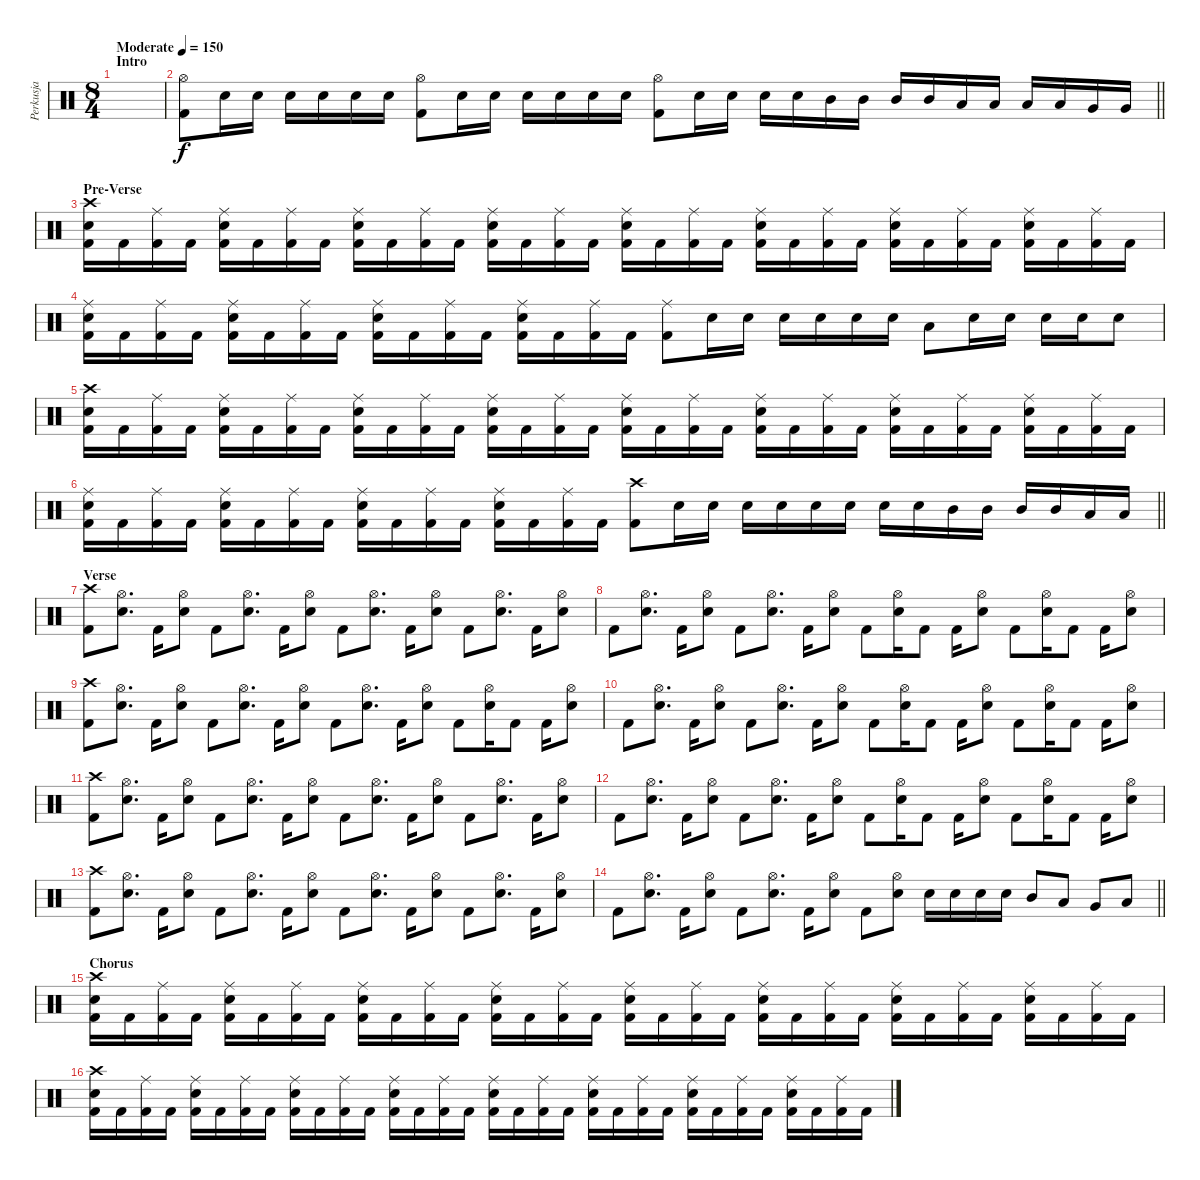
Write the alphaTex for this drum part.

\track ("Perkusja" "Perkusja") {instrument percussion}
\staff {score}
\articulation defaults
\ts (8 4)
\section ("" "Intro")
\tempo (150 "Moderate")
\clef neutral
\ks c
|
\barLineRight lightlight
("Hi-Hat (open)" "Kick (hit) 2").8 "Snare (hit) 2".16 "Snare (hit) 2".16 "Snare (hit) 2".16 "Snare (hit) 2".16 "Snare (hit) 2".16 "Snare (hit) 2".16 ("Hi-Hat (open)" "Kick (hit) 2").8 "Snare (hit) 2".16 "Snare (hit) 2".16 "Snare (hit) 2".16 "Snare (hit) 2".16 "Snare (hit) 2".16 "Snare (hit) 2".16 ("Hi-Hat (open)" "Kick (hit) 2").8 "Snare (hit) 2".16 "Snare (hit) 2".16 "Snare (hit) 2".16 "Snare (hit) 2".16 "Mid Tom (hit)".16 "Mid Tom (hit)".16 "Mid Tom (hit)".16 "Mid Tom (hit)".16 "Low Tom (hit)".16 "Low Tom (hit)".16 "Low Tom (hit)".16 "Low Tom (hit)".16 "Very Low Tom (hit)".16 "Very Low Tom (hit)".16 |
\section ("" "Pre-Verse")
("Crash high (hit)" "Snare (hit) 2" "Kick (hit) 2").16 "Kick (hit) 2".16 ("Ride (middle)" "Kick (hit) 2").16 "Kick (hit) 2".16 ("Ride (middle)" "Snare (hit) 2" "Kick (hit) 2").16 "Kick (hit) 2".16 ("Ride (middle)" "Kick (hit) 2").16 "Kick (hit) 2".16 ("Ride (middle)" "Snare (hit) 2" "Kick (hit) 2").16 "Kick (hit) 2".16 ("Ride (middle)" "Kick (hit) 2").16 "Kick (hit) 2".16 ("Ride (middle)" "Snare (hit) 2" "Kick (hit) 2").16 "Kick (hit) 2".16 ("Ride (middle)" "Kick (hit) 2").16 "Kick (hit) 2".16 ("Ride (middle)" "Snare (hit) 2" "Kick (hit) 2").16 "Kick (hit) 2".16 ("Ride (middle)" "Kick (hit) 2").16 "Kick (hit) 2".16 ("Ride (middle)" "Snare (hit) 2" "Kick (hit) 2").16 "Kick (hit) 2".16 ("Ride (middle)" "Kick (hit) 2").16 "Kick (hit) 2".16 ("Ride (middle)" "Snare (hit) 2" "Kick (hit) 2").16 "Kick (hit) 2".16 ("Ride (middle)" "Kick (hit) 2").16 "Kick (hit) 2".16 ("Ride (middle)" "Snare (hit) 2" "Kick (hit) 2").16 "Kick (hit) 2".16 ("Ride (middle)" "Kick (hit) 2").16 "Kick (hit) 2".16 |
("Ride (middle)" "Snare (hit) 2" "Kick (hit) 2").16 "Kick (hit) 2".16 ("Ride (middle)" "Kick (hit) 2").16 "Kick (hit) 2".16 ("Ride (middle)" "Snare (hit) 2" "Kick (hit) 2").16 "Kick (hit) 2".16 ("Ride (middle)" "Kick (hit) 2").16 "Kick (hit) 2".16 ("Ride (middle)" "Snare (hit) 2" "Kick (hit) 2").16 "Kick (hit) 2".16 ("Ride (middle)" "Kick (hit) 2").16 "Kick (hit) 2".16 ("Ride (middle)" "Snare (hit) 2" "Kick (hit) 2").16 "Kick (hit) 2".16 ("Ride (middle)" "Kick (hit) 2").16 "Kick (hit) 2".16 ("Ride (middle)" "Kick (hit) 2").8 "Snare (hit) 2".16 "Snare (hit) 2".16 "Snare (hit) 2".16 "Snare (hit) 2".16 "Snare (hit) 2".16 "Snare (hit) 2".16 "Low Tom (hit)".8 "Snare (hit) 2".16 "Snare (hit) 2".16 "Snare (hit) 2".16 "Snare (hit) 2".16 "Snare (hit) 2".8 |
("Crash high (hit)" "Snare (hit) 2" "Kick (hit) 2").16 "Kick (hit) 2".16 ("Ride (middle)" "Kick (hit) 2").16 "Kick (hit) 2".16 ("Ride (middle)" "Snare (hit) 2" "Kick (hit) 2").16 "Kick (hit) 2".16 ("Ride (middle)" "Kick (hit) 2").16 "Kick (hit) 2".16 ("Ride (middle)" "Snare (hit) 2" "Kick (hit) 2").16 "Kick (hit) 2".16 ("Ride (middle)" "Kick (hit) 2").16 "Kick (hit) 2".16 ("Ride (middle)" "Snare (hit) 2" "Kick (hit) 2").16 "Kick (hit) 2".16 ("Ride (middle)" "Kick (hit) 2").16 "Kick (hit) 2".16 ("Ride (middle)" "Snare (hit) 2" "Kick (hit) 2").16 "Kick (hit) 2".16 ("Ride (middle)" "Kick (hit) 2").16 "Kick (hit) 2".16 ("Ride (middle)" "Snare (hit) 2" "Kick (hit) 2").16 "Kick (hit) 2".16 ("Ride (middle)" "Kick (hit) 2").16 "Kick (hit) 2".16 ("Ride (middle)" "Snare (hit) 2" "Kick (hit) 2").16 "Kick (hit) 2".16 ("Ride (middle)" "Kick (hit) 2").16 "Kick (hit) 2".16 ("Ride (middle)" "Snare (hit) 2" "Kick (hit) 2").16 "Kick (hit) 2".16 ("Ride (middle)" "Kick (hit) 2").16 "Kick (hit) 2".16 |
\barLineRight lightlight
("Ride (middle)" "Snare (hit) 2" "Kick (hit) 2").16 "Kick (hit) 2".16 ("Ride (middle)" "Kick (hit) 2").16 "Kick (hit) 2".16 ("Ride (middle)" "Snare (hit) 2" "Kick (hit) 2").16 "Kick (hit) 2".16 ("Ride (middle)" "Kick (hit) 2").16 "Kick (hit) 2".16 ("Ride (middle)" "Snare (hit) 2" "Kick (hit) 2").16 "Kick (hit) 2".16 ("Ride (middle)" "Kick (hit) 2").16 "Kick (hit) 2".16 ("Ride (middle)" "Snare (hit) 2" "Kick (hit) 2").16 "Kick (hit) 2".16 ("Ride (middle)" "Kick (hit) 2").16 "Kick (hit) 2".16 ("Crash high (hit)" "Kick (hit) 2").8 "Snare (hit) 2".16 "Snare (hit) 2".16 "Snare (hit) 2".16 "Snare (hit) 2".16 "Snare (hit) 2".16 "Snare (hit) 2".16 "Snare (hit) 2".16 "Snare (hit) 2".16 "Mid Tom (hit)".16 "Mid Tom (hit)".16 "Mid Tom (hit)".16 "Mid Tom (hit)".16 "Low Tom (hit)".16 "Low Tom (hit)".16 |
\section ("" "Verse")
("Crash high (hit)" "Kick (hit) 2").8 ("Hi-Hat (open)" "Snare (hit) 2").8{d} "Kick (hit) 2".16 ("Hi-Hat (open)" "Snare (hit) 2").8 "Kick (hit) 2".8 ("Hi-Hat (open)" "Snare (hit) 2").8{d} "Kick (hit) 2".16 ("Hi-Hat (open)" "Snare (hit) 2").8 "Kick (hit) 2".8 ("Hi-Hat (open)" "Snare (hit) 2").8{d} "Kick (hit) 2".16 ("Hi-Hat (open)" "Snare (hit) 2").8 "Kick (hit) 2".8 ("Hi-Hat (open)" "Snare (hit) 2").8{d} "Kick (hit) 2".16 ("Hi-Hat (open)" "Snare (hit) 2").8 |
"Kick (hit) 2".8 ("Hi-Hat (open)" "Snare (hit) 2").8{d} "Kick (hit) 2".16 ("Hi-Hat (open)" "Snare (hit) 2").8 "Kick (hit) 2".8 ("Hi-Hat (open)" "Snare (hit) 2").8{d} "Kick (hit) 2".16 ("Hi-Hat (open)" "Snare (hit) 2").8 "Kick (hit) 2".8 ("Hi-Hat (open)" "Snare (hit) 2").16 "Kick (hit) 2".8 "Kick (hit) 2".16 ("Hi-Hat (open)" "Snare (hit) 2").8 "Kick (hit) 2".8 ("Hi-Hat (open)" "Snare (hit) 2").16 "Kick (hit) 2".8 "Kick (hit) 2".16 ("Hi-Hat (open)" "Snare (hit) 2").8 |
("Crash high (hit)" "Kick (hit) 2").8 ("Hi-Hat (open)" "Snare (hit) 2").8{d} "Kick (hit) 2".16 ("Hi-Hat (open)" "Snare (hit) 2").8 "Kick (hit) 2".8 ("Hi-Hat (open)" "Snare (hit) 2").8{d} "Kick (hit) 2".16 ("Hi-Hat (open)" "Snare (hit) 2").8 "Kick (hit) 2".8 ("Hi-Hat (open)" "Snare (hit) 2").8{d} "Kick (hit) 2".16 ("Hi-Hat (open)" "Snare (hit) 2").8 "Kick (hit) 2".8 ("Hi-Hat (open)" "Snare (hit) 2").16 "Kick (hit) 2".8 "Kick (hit) 2".16 ("Hi-Hat (open)" "Snare (hit) 2").8 |
"Kick (hit) 2".8 ("Hi-Hat (open)" "Snare (hit) 2").8{d} "Kick (hit) 2".16 ("Hi-Hat (open)" "Snare (hit) 2").8 "Kick (hit) 2".8 ("Hi-Hat (open)" "Snare (hit) 2").8{d} "Kick (hit) 2".16 ("Hi-Hat (open)" "Snare (hit) 2").8 "Kick (hit) 2".8 ("Hi-Hat (open)" "Snare (hit) 2").16 "Kick (hit) 2".8 "Kick (hit) 2".16 ("Hi-Hat (open)" "Snare (hit) 2").8 "Kick (hit) 2".8 ("Hi-Hat (open)" "Snare (hit) 2").16 "Kick (hit) 2".8 "Kick (hit) 2".16 ("Hi-Hat (open)" "Snare (hit) 2").8 |
("Crash high (hit)" "Kick (hit) 2").8 ("Hi-Hat (open)" "Snare (hit) 2").8{d} "Kick (hit) 2".16 ("Hi-Hat (open)" "Snare (hit) 2").8 "Kick (hit) 2".8 ("Hi-Hat (open)" "Snare (hit) 2").8{d} "Kick (hit) 2".16 ("Hi-Hat (open)" "Snare (hit) 2").8 "Kick (hit) 2".8 ("Hi-Hat (open)" "Snare (hit) 2").8{d} "Kick (hit) 2".16 ("Hi-Hat (open)" "Snare (hit) 2").8 "Kick (hit) 2".8 ("Hi-Hat (open)" "Snare (hit) 2").8{d} "Kick (hit) 2".16 ("Hi-Hat (open)" "Snare (hit) 2").8 |
"Kick (hit) 2".8 ("Hi-Hat (open)" "Snare (hit) 2").8{d} "Kick (hit) 2".16 ("Hi-Hat (open)" "Snare (hit) 2").8 "Kick (hit) 2".8 ("Hi-Hat (open)" "Snare (hit) 2").8{d} "Kick (hit) 2".16 ("Hi-Hat (open)" "Snare (hit) 2").8 "Kick (hit) 2".8 ("Hi-Hat (open)" "Snare (hit) 2").16 "Kick (hit) 2".8 "Kick (hit) 2".16 ("Hi-Hat (open)" "Snare (hit) 2").8 "Kick (hit) 2".8 ("Hi-Hat (open)" "Snare (hit) 2").16 "Kick (hit) 2".8 "Kick (hit) 2".16 ("Hi-Hat (open)" "Snare (hit) 2").8 |
("Crash high (hit)" "Kick (hit) 2").8 ("Hi-Hat (open)" "Snare (hit) 2").8{d} "Kick (hit) 2".16 ("Hi-Hat (open)" "Snare (hit) 2").8 "Kick (hit) 2".8 ("Hi-Hat (open)" "Snare (hit) 2").8{d} "Kick (hit) 2".16 ("Hi-Hat (open)" "Snare (hit) 2").8 "Kick (hit) 2".8 ("Hi-Hat (open)" "Snare (hit) 2").8{d} "Kick (hit) 2".16 ("Hi-Hat (open)" "Snare (hit) 2").8 "Kick (hit) 2".8 ("Hi-Hat (open)" "Snare (hit) 2").8{d} "Kick (hit) 2".16 ("Hi-Hat (open)" "Snare (hit) 2").8 |
\barLineRight lightlight "Kick (hit) 2".8
("Hi-Hat (open)" "Snare (hit) 2").8{d} "Kick (hit) 2".16 ("Hi-Hat (open)" "Snare (hit) 2").8 "Kick (hit) 2".8 ("Hi-Hat (open)" "Snare (hit) 2").8{d} "Kick (hit) 2".16 ("Hi-Hat (open)" "Snare (hit) 2").8 "Kick (hit) 2".8 ("Hi-Hat (open)" "Snare (hit) 2").8 "Snare (hit) 2".16 "Snare (hit) 2".16 "Snare (hit) 2".16 "Snare (hit) 2".16 "Mid Tom (hit)".8 "Low Tom (hit)".8 "Very Low Tom (hit)".8 "Low Floor Tom (hit)".8 |
\section ("" "Chorus")
("Crash high (hit)" "Snare (hit) 2" "Kick (hit) 2").16 "Kick (hit) 2".16 ("Ride (middle)" "Kick (hit) 2").16 "Kick (hit) 2".16 ("Ride (middle)" "Snare (hit) 2" "Kick (hit) 2").16 "Kick (hit) 2".16 ("Ride (middle)" "Kick (hit) 2").16 "Kick (hit) 2".16 ("Ride (middle)" "Snare (hit) 2" "Kick (hit) 2").16 "Kick (hit) 2".16 ("Ride (middle)" "Kick (hit) 2").16 "Kick (hit) 2".16 ("Ride (middle)" "Snare (hit) 2" "Kick (hit) 2").16 "Kick (hit) 2".16 ("Ride (middle)" "Kick (hit) 2").16 "Kick (hit) 2".16 ("Ride (middle)" "Snare (hit) 2" "Kick (hit) 2").16 "Kick (hit) 2".16 ("Ride (middle)" "Kick (hit) 2").16 "Kick (hit) 2".16 ("Ride (middle)" "Snare (hit) 2" "Kick (hit) 2").16 "Kick (hit) 2".16 ("Ride (middle)" "Kick (hit) 2").16 "Kick (hit) 2".16 ("Ride (middle)" "Snare (hit) 2" "Kick (hit) 2").16 "Kick (hit) 2".16 ("Ride (middle)" "Kick (hit) 2").16 "Kick (hit) 2".16 ("Ride (middle)" "Snare (hit) 2" "Kick (hit) 2").16 "Kick (hit) 2".16 ("Ride (middle)" "Kick (hit) 2").16 "Kick (hit) 2".16 |
("Crash high (hit)" "Snare (hit) 2" "Kick (hit) 2").16 "Kick (hit) 2".16 ("Ride (middle)" "Kick (hit) 2").16 "Kick (hit) 2".16 ("Ride (middle)" "Snare (hit) 2" "Kick (hit) 2").16 "Kick (hit) 2".16 ("Ride (middle)" "Kick (hit) 2").16 "Kick (hit) 2".16 ("Ride (middle)" "Snare (hit) 2" "Kick (hit) 2").16 "Kick (hit) 2".16 ("Ride (middle)" "Kick (hit) 2").16 "Kick (hit) 2".16 ("Ride (middle)" "Snare (hit) 2" "Kick (hit) 2").16 "Kick (hit) 2".16 ("Ride (middle)" "Kick (hit) 2").16 "Kick (hit) 2".16 ("Ride (middle)" "Snare (hit) 2" "Kick (hit) 2").16 "Kick (hit) 2".16 ("Ride (middle)" "Kick (hit) 2").16 "Kick (hit) 2".16 ("Ride (middle)" "Snare (hit) 2" "Kick (hit) 2").16 "Kick (hit) 2".16 ("Ride (middle)" "Kick (hit) 2").16 "Kick (hit) 2".16 ("Ride (middle)" "Snare (hit) 2" "Kick (hit) 2").16 "Kick (hit) 2".16 ("Ride (middle)" "Kick (hit) 2").16 "Kick (hit) 2".16 ("Ride (middle)" "Snare (hit) 2" "Kick (hit) 2").16 "Kick (hit) 2".16 ("Ride (middle)" "Kick (hit) 2").16 "Kick (hit) 2".16
